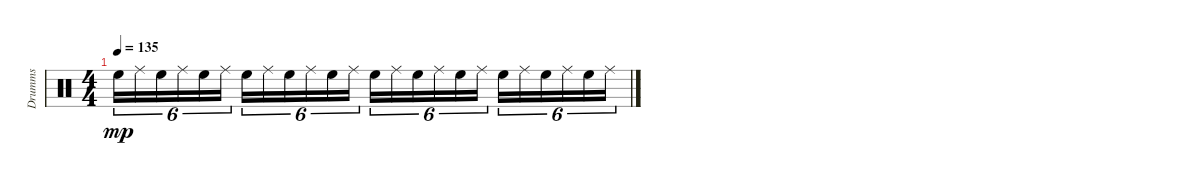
\track ("Drumms" "Drumms") {instrument percussion}
\staff {score}
\articulation defaults
\ts (4 4)
\tempo 135
\clef neutral
\ks c "High Floor Tom (hit)".16{tu (6 4) dy mp} "Ride (middle)".16{tu (6 4)} "High Floor Tom (hit)".16{tu (6 4)} "Ride (middle)".16{tu (6 4)} "High Floor Tom (hit)".16{tu (6 4)} "Ride (middle)".16{tu (6 4)} "High Floor Tom (hit)".16{tu (6 4)} "Ride (middle)".16{tu (6 4)} "High Floor Tom (hit)".16{tu (6 4)} "Ride (middle)".16{tu (6 4)} "High Floor Tom (hit)".16{tu (6 4)} "Ride (middle)".16{tu (6 4)} "High Floor Tom (hit)".16{tu (6 4)} "Ride (middle)".16{tu (6 4)} "High Floor Tom (hit)".16{tu (6 4)} "Ride (middle)".16{tu (6 4)} "High Floor Tom (hit)".16{tu (6 4)} "Ride (middle)".16{tu (6 4)} "High Floor Tom (hit)".16{tu (6 4)} "Ride (middle)".16{tu (6 4)} "High Floor Tom (hit)".16{tu (6 4)} "Ride (middle)".16{tu (6 4)} "High Floor Tom (hit)".16{tu (6 4)} "Ride (middle)".16{tu (6 4)}
